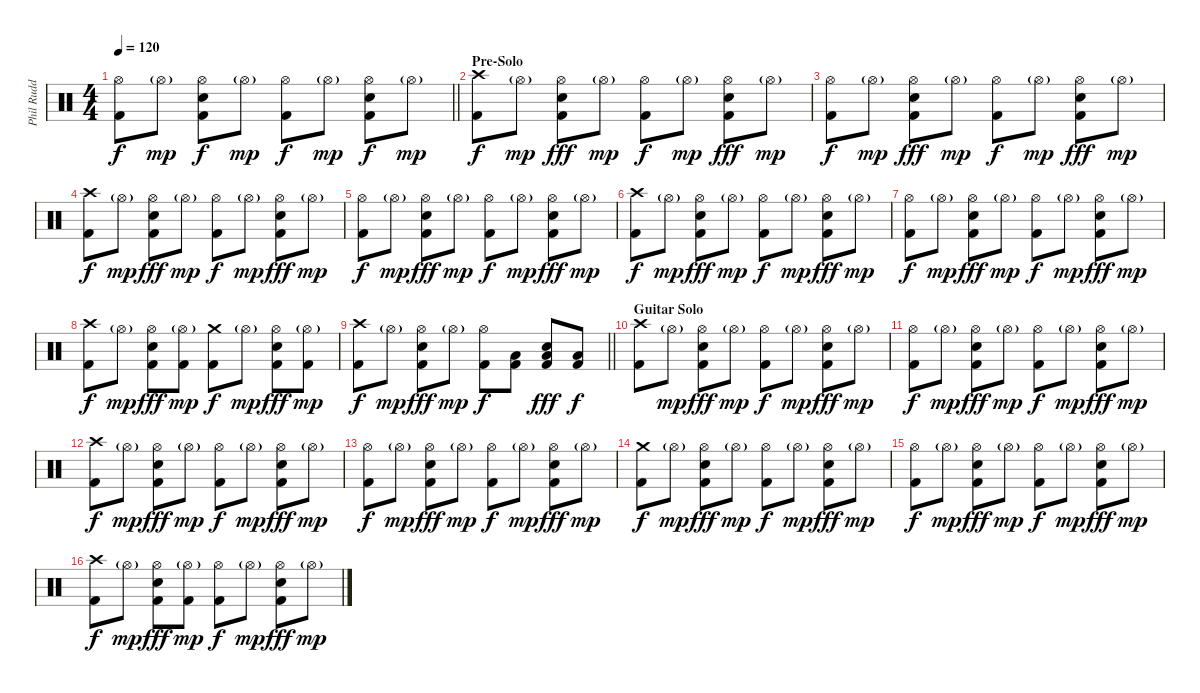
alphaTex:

\track ("Phil Rudd" "Phil Rudd") {instrument percussion}
\staff {score}
\articulation defaults
\ts (4 4)
\tempo 120
\clef neutral
\barLineRight lightlight
\ks c
("Hi-Hat (open)" "Kick (hit) 2").8{dy f} "Hi-Hat (open)"{g}.8{dy mp} ("Hi-Hat (open)" "Electric Snare (hit)" "Kick (hit) 2").8{dy f} "Hi-Hat (open)"{g}.8{dy mp} ("Hi-Hat (open)" "Kick (hit) 2").8{dy f} "Hi-Hat (open)"{g}.8{dy mp} ("Hi-Hat (open)" "Electric Snare (hit)" "Kick (hit) 2").8{dy f} "Hi-Hat (open)"{g}.8{dy mp} |
\section ("" "Pre-Solo")
("Crash high (hit)" "Kick (hit) 2").8{dy f} "Hi-Hat (open)"{g}.8{dy mp} ("Hi-Hat (open)" "Electric Snare (hit)" "Kick (hit) 2").8{dy fff} "Hi-Hat (open)"{g}.8{dy mp} ("Hi-Hat (open)" "Kick (hit) 2").8{dy f} "Hi-Hat (open)"{g}.8{dy mp} ("Hi-Hat (open)" "Electric Snare (hit)" "Kick (hit) 2").8{dy fff} "Hi-Hat (open)"{g}.8{dy mp} |
("Hi-Hat (open)" "Kick (hit) 2").8{dy f} "Hi-Hat (open)"{g}.8{dy mp} ("Hi-Hat (open)" "Electric Snare (hit)" "Kick (hit) 2").8{dy fff} "Hi-Hat (open)"{g}.8{dy mp} ("Hi-Hat (open)" "Kick (hit) 2").8{dy f} "Hi-Hat (open)"{g}.8{dy mp} ("Hi-Hat (open)" "Electric Snare (hit)" "Kick (hit) 2").8{dy fff} "Hi-Hat (open)"{g}.8{dy mp} |
("Crash high (hit)" "Kick (hit) 2").8{dy f} "Hi-Hat (open)"{g}.8{dy mp} ("Hi-Hat (open)" "Electric Snare (hit)" "Kick (hit) 2").8{dy fff} "Hi-Hat (open)"{g}.8{dy mp} ("Hi-Hat (open)" "Kick (hit) 2").8{dy f} "Hi-Hat (open)"{g}.8{dy mp} ("Hi-Hat (open)" "Electric Snare (hit)" "Kick (hit) 2").8{dy fff} "Hi-Hat (open)"{g}.8{dy mp} |
("Hi-Hat (open)" "Kick (hit) 2").8{dy f} "Hi-Hat (open)"{g}.8{dy mp} ("Hi-Hat (open)" "Electric Snare (hit)" "Kick (hit) 2").8{dy fff} "Hi-Hat (open)"{g}.8{dy mp} ("Hi-Hat (open)" "Kick (hit) 2").8{dy f} "Hi-Hat (open)"{g}.8{dy mp} ("Hi-Hat (open)" "Electric Snare (hit)" "Kick (hit) 2").8{dy fff} "Hi-Hat (open)"{g}.8{dy mp} |
("Crash high (hit)" "Kick (hit) 2").8{dy f} "Hi-Hat (open)"{g}.8{dy mp} ("Hi-Hat (open)" "Electric Snare (hit)" "Kick (hit) 2").8{dy fff} "Hi-Hat (open)"{g}.8{dy mp} ("Hi-Hat (open)" "Kick (hit) 2").8{dy f} "Hi-Hat (open)"{g}.8{dy mp} ("Hi-Hat (open)" "Electric Snare (hit)" "Kick (hit) 2").8{dy fff} "Hi-Hat (open)"{g}.8{dy mp} |
("Hi-Hat (open)" "Kick (hit) 2").8{dy f} "Hi-Hat (open)"{g}.8{dy mp} ("Hi-Hat (open)" "Electric Snare (hit)" "Kick (hit) 2").8{dy fff} "Hi-Hat (open)"{g}.8{dy mp} ("Hi-Hat (open)" "Kick (hit) 2").8{dy f} "Hi-Hat (open)"{g}.8{dy mp} ("Hi-Hat (open)" "Electric Snare (hit)" "Kick (hit) 2").8{dy fff} "Hi-Hat (open)"{g}.8{dy mp} |
("Crash high (hit)" "Kick (hit) 2").8{dy f} "Hi-Hat (open)"{g}.8{dy mp} ("Hi-Hat (open)" "Electric Snare (hit)" "Kick (hit) 2").8{dy fff} ("Hi-Hat (open)"{g} "Kick (hit) 2").8{dy mp} ("Crash medium (hit)" "Kick (hit) 2").8{dy f} "Hi-Hat (open)"{g}.8{dy mp} ("Hi-Hat (open)" "Electric Snare (hit)" "Kick (hit) 2").8{dy fff} ("Hi-Hat (open)"{g} "Kick (hit) 2").8{dy mp} |
\barLineRight lightlight
("Crash high (hit)" "Kick (hit) 2").8{dy f} "Hi-Hat (open)"{g}.8{dy mp} ("Hi-Hat (open)" "Electric Snare (hit)" "Kick (hit) 2").8{dy fff} "Hi-Hat (open)"{g}.8{dy mp} ("Hi-Hat (open)" "Kick (hit) 2").8{dy f} ("Low Floor Tom (hit)" "Kick (hit) 2").8 ("Electric Snare (hit)" "Low Floor Tom (hit)" "Kick (hit) 2").8{dy fff} ("Low Floor Tom (hit)" "Kick (hit) 2").8{dy f} |
\section ("" "Guitar Solo")
("Crash high (hit)" "Kick (hit) 2").8 "Hi-Hat (open)"{g}.8{dy mp} ("Hi-Hat (open)" "Electric Snare (hit)" "Kick (hit) 2").8{dy fff} "Hi-Hat (open)"{g}.8{dy mp} ("Hi-Hat (open)" "Kick (hit) 2").8{dy f} "Hi-Hat (open)"{g}.8{dy mp} ("Hi-Hat (open)" "Electric Snare (hit)" "Kick (hit) 2").8{dy fff} "Hi-Hat (open)"{g}.8{dy mp} |
("Hi-Hat (open)" "Kick (hit) 2").8{dy f} "Hi-Hat (open)"{g}.8{dy mp} ("Hi-Hat (open)" "Electric Snare (hit)" "Kick (hit) 2").8{dy fff} "Hi-Hat (open)"{g}.8{dy mp} ("Hi-Hat (open)" "Kick (hit) 2").8{dy f} "Hi-Hat (open)"{g}.8{dy mp} ("Hi-Hat (open)" "Electric Snare (hit)" "Kick (hit) 2").8{dy fff} "Hi-Hat (open)"{g}.8{dy mp} |
("Crash high (hit)" "Kick (hit) 2").8{dy f} "Hi-Hat (open)"{g}.8{dy mp} ("Hi-Hat (open)" "Electric Snare (hit)" "Kick (hit) 2").8{dy fff} "Hi-Hat (open)"{g}.8{dy mp} ("Hi-Hat (open)" "Kick (hit) 2").8{dy f} "Hi-Hat (open)"{g}.8{dy mp} ("Hi-Hat (open)" "Electric Snare (hit)" "Kick (hit) 2").8{dy fff} "Hi-Hat (open)"{g}.8{dy mp} |
("Hi-Hat (open)" "Kick (hit) 2").8{dy f} "Hi-Hat (open)"{g}.8{dy mp} ("Hi-Hat (open)" "Electric Snare (hit)" "Kick (hit) 2").8{dy fff} "Hi-Hat (open)"{g}.8{dy mp} ("Hi-Hat (open)" "Kick (hit) 2").8{dy f} "Hi-Hat (open)"{g}.8{dy mp} ("Hi-Hat (open)" "Electric Snare (hit)" "Kick (hit) 2").8{dy fff} "Hi-Hat (open)"{g}.8{dy mp} |
("Crash medium (hit)" "Kick (hit) 2").8{dy f} "Hi-Hat (open)"{g}.8{dy mp} ("Hi-Hat (open)" "Electric Snare (hit)" "Kick (hit) 2").8{dy fff} "Hi-Hat (open)"{g}.8{dy mp} ("Hi-Hat (open)" "Kick (hit) 2").8{dy f} "Hi-Hat (open)"{g}.8{dy mp} ("Hi-Hat (open)" "Electric Snare (hit)" "Kick (hit) 2").8{dy fff} "Hi-Hat (open)"{g}.8{dy mp} |
("Hi-Hat (open)" "Kick (hit) 2").8{dy f} "Hi-Hat (open)"{g}.8{dy mp} ("Hi-Hat (open)" "Electric Snare (hit)" "Kick (hit) 2").8{dy fff} "Hi-Hat (open)"{g}.8{dy mp} ("Hi-Hat (open)" "Kick (hit) 2").8{dy f} "Hi-Hat (open)"{g}.8{dy mp} ("Hi-Hat (open)" "Electric Snare (hit)" "Kick (hit) 2").8{dy fff} "Hi-Hat (open)"{g}.8{dy mp} |
("Crash high (hit)" "Kick (hit) 2").8{dy f} "Hi-Hat (open)"{g}.8{dy mp} ("Hi-Hat (open)" "Electric Snare (hit)" "Kick (hit) 2").8{dy fff} ("Hi-Hat (open)"{g} "Kick (hit) 2").8{dy mp} ("Hi-Hat (open)" "Kick (hit) 2").8{dy f} "Hi-Hat (open)"{g}.8{dy mp} ("Hi-Hat (open)" "Electric Snare (hit)" "Kick (hit) 2").8{dy fff} "Hi-Hat (open)"{g}.8{dy mp}
